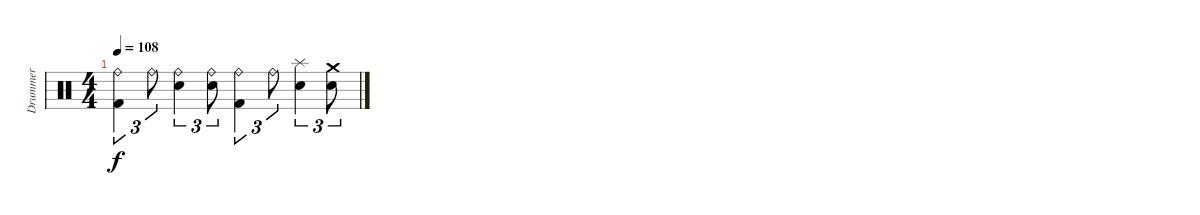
\track ("Drummer" "Drummer") {instrument percussion}
\staff {score}
\articulation defaults
\ts (4 4)
\tempo 108
\clef neutral
\ks c
("Ride (bell)" "Kick (hit) 2").4{tu (3 2) dy f} "Ride (bell)".8{tu (3 2)} ("Ride (bell)" "Electric Snare (hit)").4{tu (3 2)} ("Ride (bell)" "Electric Snare (hit)").8{tu (3 2)} ("Ride (bell)" "Kick (hit) 2").4{tu (3 2)} "Ride (bell)".8{tu (3 2)} ("Splash (hit)" "Electric Snare (hit)").4{tu (3 2)} ("Crash medium (hit)" "Electric Snare (hit)").8{tu (3 2)}
